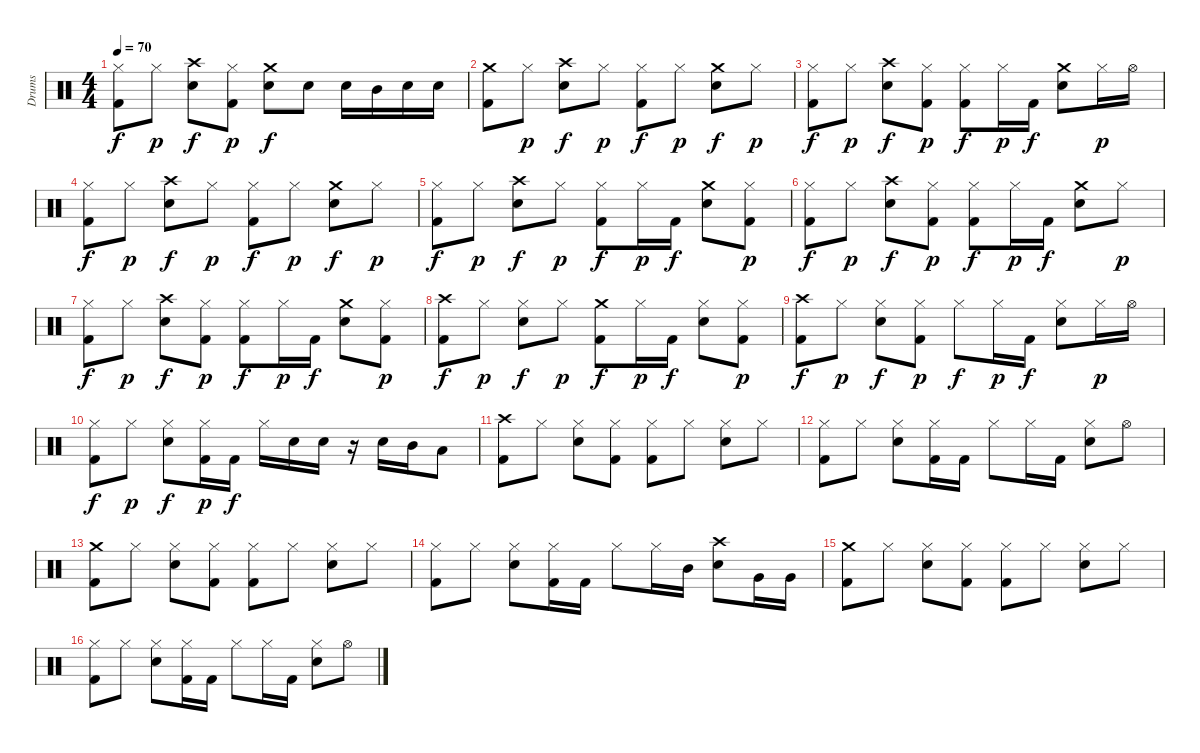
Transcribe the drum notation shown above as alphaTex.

\track ("Drums" "Drums") {instrument percussion}
\staff {score}
\articulation defaults
\ts (4 4)
\tempo 70
\clef neutral
\ks c
("Hi-Hat (closed)" "Kick (hit) 2").8{dy f} "Hi-Hat (closed)".8{dy p} ("Crash high (hit)" "Snare (hit) 2").8{dy f} ("Hi-Hat (closed)" "Kick (hit) 2").8{dy p} ("Crash medium (hit)" "Snare (hit) 2").8{dy f} "Snare (hit) 2".8 "Snare (hit) 2".16 "Mid Tom (hit)".16 "Snare (hit) 2".16 "Snare (hit) 2".16 |
("Crash medium (hit)" "Kick (hit) 2").8 "Hi-Hat (closed)".8{dy p} ("Crash high (hit)" "Snare (hit) 2").8{dy f} "Hi-Hat (closed)".8{dy p} ("Hi-Hat (closed)" "Kick (hit) 2").8{dy f} "Hi-Hat (closed)".8{dy p} ("Crash medium (hit)" "Snare (hit) 2").8{dy f} "Hi-Hat (closed)".8{dy p} |
("Hi-Hat (closed)" "Kick (hit) 2").8{dy f} "Hi-Hat (closed)".8{dy p} ("Crash high (hit)" "Snare (hit) 2").8{dy f} ("Hi-Hat (closed)" "Kick (hit) 2").8{dy p} ("Hi-Hat (closed)" "Kick (hit) 2").8{dy f} "Hi-Hat (closed)".16{dy p} "Kick (hit) 2".16{dy f} ("Crash medium (hit)" "Snare (hit) 2").8 "Hi-Hat (closed)".16{dy p} "Hi-Hat (open)".16 |
("Hi-Hat (closed)" "Kick (hit) 2").8{dy f} "Hi-Hat (closed)".8{dy p} ("Crash high (hit)" "Snare (hit) 2").8{dy f} "Hi-Hat (closed)".8{dy p} ("Hi-Hat (closed)" "Kick (hit) 2").8{dy f} "Hi-Hat (closed)".8{dy p} ("Crash medium (hit)" "Snare (hit) 2").8{dy f} "Hi-Hat (closed)".8{dy p} |
("Hi-Hat (closed)" "Kick (hit) 2").8{dy f} "Hi-Hat (closed)".8{dy p} ("Crash high (hit)" "Snare (hit) 2").8{dy f} "Hi-Hat (closed)".8{dy p} ("Hi-Hat (closed)" "Kick (hit) 2").8{dy f} "Hi-Hat (closed)".16{dy p} "Kick (hit) 2".16{dy f} ("Crash medium (hit)" "Snare (hit) 2").8 ("Hi-Hat (closed)" "Kick (hit) 2").8{dy p} |
("Hi-Hat (closed)" "Kick (hit) 2").8{dy f} "Hi-Hat (closed)".8{dy p} ("Crash high (hit)" "Snare (hit) 2").8{dy f} ("Hi-Hat (closed)" "Kick (hit) 2").8{dy p} ("Hi-Hat (closed)" "Kick (hit) 2").8{dy f} "Hi-Hat (closed)".16{dy p} "Kick (hit) 2".16{dy f} ("Crash medium (hit)" "Snare (hit) 2").8 "Hi-Hat (closed)".8{dy p} |
("Hi-Hat (closed)" "Kick (hit) 2").8{dy f} "Hi-Hat (closed)".8{dy p} ("Crash high (hit)" "Snare (hit) 2").8{dy f} ("Hi-Hat (closed)" "Kick (hit) 2").8{dy p} ("Hi-Hat (closed)" "Kick (hit) 2").8{dy f} "Hi-Hat (closed)".16{dy p} "Kick (hit) 2".16{dy f} ("Crash medium (hit)" "Snare (hit) 2").8 ("Hi-Hat (closed)" "Kick (hit) 2").8{dy p} |
("Crash high (hit)" "Kick (hit) 2").8{dy f} "Hi-Hat (closed)".8{dy p} ("Hi-Hat (closed)" "Snare (hit) 2").8{dy f} "Hi-Hat (closed)".8{dy p} ("Crash medium (hit)" "Kick (hit) 2").8{dy f} "Hi-Hat (closed)".16{dy p} "Kick (hit) 2".16{dy f} ("Hi-Hat (closed)" "Snare (hit) 2").8 ("Hi-Hat (closed)" "Kick (hit) 2").8{dy p} |
("Crash high (hit)" "Kick (hit) 2").8{dy f} "Hi-Hat (closed)".8{dy p} ("Hi-Hat (closed)" "Snare (hit) 2").8{dy f} ("Hi-Hat (closed)" "Kick (hit) 2").8{dy p} "Hi-Hat (closed)".8{dy f} "Hi-Hat (closed)".16{dy p} "Kick (hit) 2".16{dy f} ("Hi-Hat (closed)" "Snare (hit) 2").8 "Hi-Hat (closed)".16{dy p} "Hi-Hat (open)".16 |
("Hi-Hat (closed)" "Kick (hit) 2").8{dy f} "Hi-Hat (closed)".8{dy p} ("Hi-Hat (closed)" "Snare (hit) 2").8{dy f} ("Hi-Hat (closed)" "Kick (hit) 2").16{dy p} "Kick (hit) 2".16{dy f} "Hi-Hat (closed)".16 "Snare (hit) 2".16 "Snare (hit) 2".16 r.16 "Snare (hit) 2".16 "Mid Tom (hit)".16 "Low Tom (hit)".8 |
\section ("" "")
("Crash high (hit)" "Kick (hit) 2").8 "Hi-Hat (closed)".8 ("Hi-Hat (closed)" "Snare (hit) 2").8 ("Hi-Hat (closed)" "Kick (hit) 2").8 ("Hi-Hat (closed)" "Kick (hit) 2").8 "Hi-Hat (closed)".8 ("Hi-Hat (closed)" "Snare (hit) 2").8 "Hi-Hat (closed)".8 |
("Hi-Hat (closed)" "Kick (hit) 2").8 "Hi-Hat (closed)".8 ("Hi-Hat (closed)" "Snare (hit) 2").8 ("Hi-Hat (closed)" "Kick (hit) 2").16 "Kick (hit) 2".16 "Hi-Hat (closed)".8 "Hi-Hat (closed)".16 "Kick (hit) 2".16 ("Hi-Hat (closed)" "Snare (hit) 2").8 "Hi-Hat (open)".8 |
("Crash medium (hit)" "Kick (hit) 2").8 "Hi-Hat (closed)".8 ("Hi-Hat (closed)" "Snare (hit) 2").8 ("Hi-Hat (closed)" "Kick (hit) 2").8 ("Hi-Hat (closed)" "Kick (hit) 2").8 "Hi-Hat (closed)".8 ("Hi-Hat (closed)" "Snare (hit) 2").8 "Hi-Hat (closed)".8 |
("Hi-Hat (closed)" "Kick (hit) 2").8 "Hi-Hat (closed)".8 ("Hi-Hat (closed)" "Snare (hit) 2").8 ("Hi-Hat (closed)" "Kick (hit) 2").16 "Kick (hit) 2".16 "Hi-Hat (closed)".8 "Hi-Hat (closed)".16 "Mid Tom (hit)".16 ("Crash high (hit)" "Snare (hit) 2").8 "Very Low Tom (hit)".16 "Very Low Tom (hit)".16 |
("Crash medium (hit)" "Kick (hit) 2").8 "Hi-Hat (closed)".8 ("Hi-Hat (closed)" "Snare (hit) 2").8 ("Hi-Hat (closed)" "Kick (hit) 2").8 ("Hi-Hat (closed)" "Kick (hit) 2").8 "Hi-Hat (closed)".8 ("Hi-Hat (closed)" "Snare (hit) 2").8 "Hi-Hat (closed)".8 |
("Hi-Hat (closed)" "Kick (hit) 2").8 "Hi-Hat (closed)".8 ("Hi-Hat (closed)" "Snare (hit) 2").8 ("Hi-Hat (closed)" "Kick (hit) 2").16 "Kick (hit) 2".16 "Hi-Hat (closed)".8 "Hi-Hat (closed)".16 "Kick (hit) 2".16 ("Hi-Hat (closed)" "Snare (hit) 2").8 "Hi-Hat (open)".8
